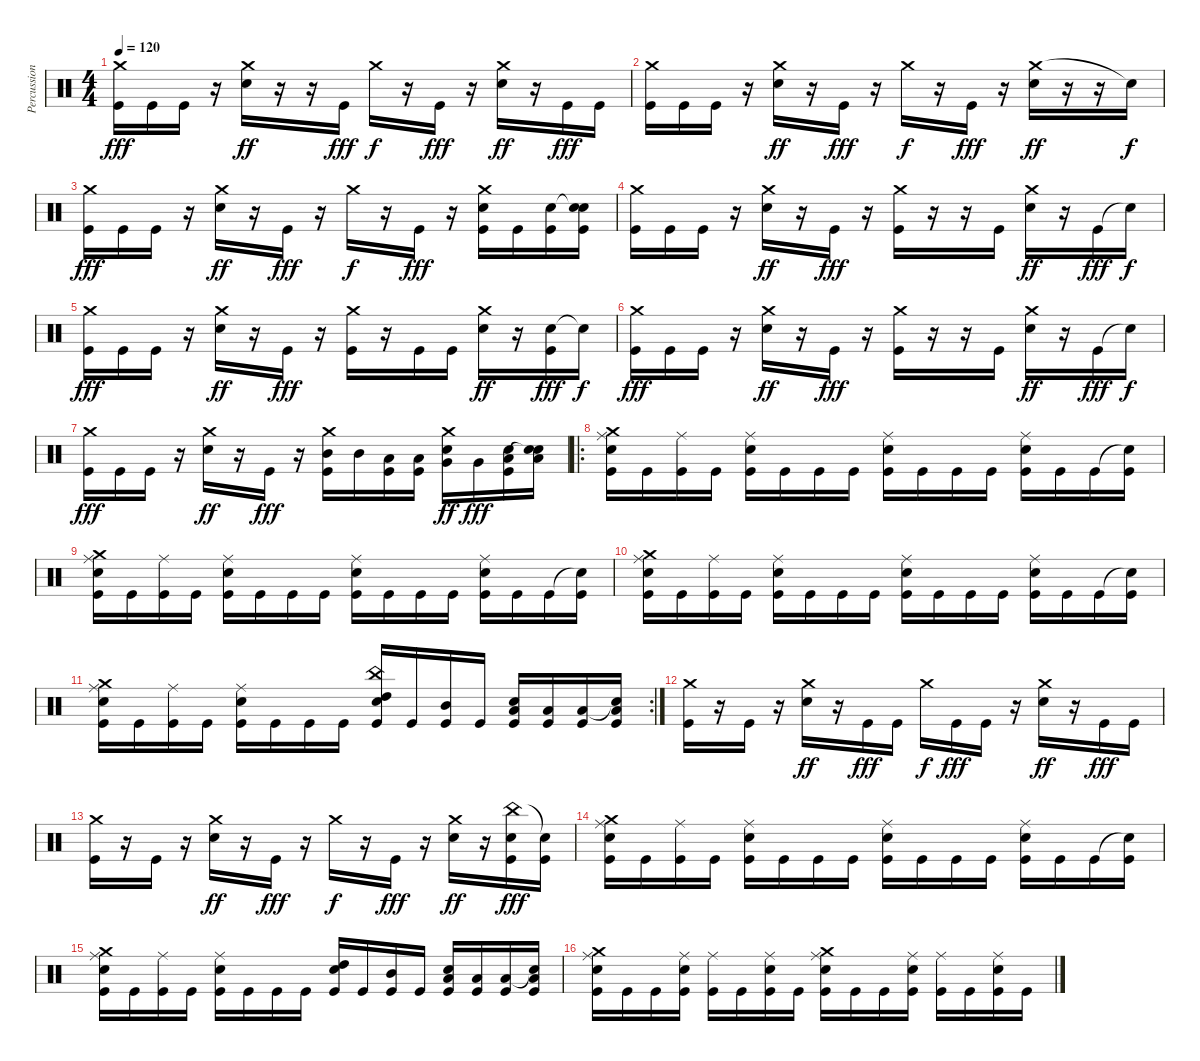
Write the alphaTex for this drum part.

\track ("Percussions" "Percussion") {instrument percussion}
\staff {score}
\articulation defaults
\ts (4 4)
\tempo 120
\clef neutral
\ks c
("Crash medium (hit)" "Kick (hit)").16{dy fff} "Kick (hit)".16 "Kick (hit)".16 r.16 ("Crash medium (hit)" "Electric Snare (hit)").16{dy ff} r.16 r.16 "Kick (hit)".16{dy fff} "Crash medium (hit)".16{dy f} r.16 "Kick (hit)".16{dy fff} r.16 ("Crash medium (hit)" "Electric Snare (hit)").16{dy ff} r.16 "Kick (hit)".16{dy fff} "Kick (hit)".16 |
("Crash medium (hit)" "Kick (hit)").16 "Kick (hit)".16 "Kick (hit)".16 r.16 ("Crash medium (hit)" "Electric Snare (hit)").16{dy ff} r.16 "Kick (hit)".16{dy fff} r.16 "Crash medium (hit)".16{dy f} r.16 "Kick (hit)".16{dy fff} r.16 ("Crash medium (hit)" "Electric Snare (hit)").16{dy ff} r.16 r.16 "Snare (hit)"{t}.16{dy f} |
("Crash medium (hit)" "Kick (hit)").16{dy fff} "Kick (hit)".16 "Kick (hit)".16 r.16 ("Crash medium (hit)" "Electric Snare (hit)").16{dy ff} r.16 "Kick (hit)".16{dy fff} r.16 "Crash medium (hit)".16{dy f} r.16 "Kick (hit)".16{dy fff} r.16 ("Crash medium (hit)" "Electric Snare (hit)" "Kick (hit)").16 "Kick (hit)".16 ("Electric Snare (hit)" "Kick (hit)").16 ("Snare (hit)"{t} "Electric Snare (hit)" "Kick (hit)").16 |
("Crash medium (hit)" "Kick (hit)").16 "Kick (hit)".16 "Kick (hit)".16 r.16 ("Crash medium (hit)" "Electric Snare (hit)").16{dy ff} r.16 "Kick (hit)".16{dy fff} r.16 ("Crash medium (hit)" "Kick (hit)").16 r.16 r.16 "Kick (hit)".16 ("Crash medium (hit)" "Electric Snare (hit)").16{dy ff} r.16 "Kick (hit)".16{dy fff} "Snare (hit)"{t}.16{dy f} |
("Crash medium (hit)" "Kick (hit)").16{dy fff} "Kick (hit)".16 "Kick (hit)".16 r.16 ("Crash medium (hit)" "Electric Snare (hit)").16{dy ff} r.16 "Kick (hit)".16{dy fff} r.16 ("Crash medium (hit)" "Kick (hit)").16 r.16 "Kick (hit)".16 "Kick (hit)".16 ("Crash medium (hit)" "Electric Snare (hit)").16{dy ff} r.16 ("Electric Snare (hit)" "Kick (hit)").16{dy fff} "Snare (hit)"{t}.16{dy f} |
("Crash medium (hit)" "Kick (hit)").16{dy fff} "Kick (hit)".16 "Kick (hit)".16 r.16 ("Crash medium (hit)" "Electric Snare (hit)").16{dy ff} r.16 "Kick (hit)".16{dy fff} r.16 ("Crash medium (hit)" "Kick (hit)").16 r.16 r.16 "Kick (hit)".16 ("Crash medium (hit)" "Electric Snare (hit)").16{dy ff} r.16 "Kick (hit)".16{dy fff} "Snare (hit)"{t}.16{dy f} |
("Crash medium (hit)" "Kick (hit)").16{dy fff} "Kick (hit)".16 "Kick (hit)".16 r.16 ("Crash medium (hit)" "Electric Snare (hit)").16{dy ff} r.16 "Kick (hit)".16{dy fff} r.16 ("Crash medium (hit)" "Mid Tom (hit)" "Kick (hit)").16 "Mid Tom (hit)".16 ("Low Tom (hit)" "Kick (hit)").16 ("Low Tom (hit)" "Kick (hit)").16 ("Crash medium (hit)" "Very Low Tom (hit)" "Electric Snare (hit)").16{dy ff} "Very Low Tom (hit)".16{dy fff} ("Low Floor Tom (hit)" "Electric Snare (hit)" "Kick (hit)").16 ("Snare (hit)"{t} "Low Floor Tom (hit)" "Electric Snare (hit)").16 |
\ro
("Ride (middle)" "Crash medium (hit)" "Snare (hit) 2" "Kick (hit)").16 "Kick (hit)".16 ("Ride (middle)" "Kick (hit)").16 "Kick (hit)".16 ("Ride (middle)" "Snare (hit) 2" "Kick (hit)").16 "Kick (hit)".16 "Kick (hit)".16 "Kick (hit)".16 ("Ride (middle)" "Snare (hit) 2" "Kick (hit)").16 "Kick (hit)".16 "Kick (hit)".16 "Kick (hit)".16 ("Ride (middle)" "Snare (hit) 2" "Kick (hit)").16 "Kick (hit)".16 "Kick (hit)".16 ("Snare (hit)"{t} "Kick (hit)").16 |
("Ride (middle)" "Crash medium (hit)" "Snare (hit) 2" "Kick (hit)").16 "Kick (hit)".16 ("Ride (middle)" "Kick (hit)").16 "Kick (hit)".16 ("Ride (middle)" "Snare (hit) 2" "Kick (hit)").16 "Kick (hit)".16 "Kick (hit)".16 "Kick (hit)".16 ("Ride (middle)" "Snare (hit) 2" "Kick (hit)").16 "Kick (hit)".16 "Kick (hit)".16 "Kick (hit)".16 ("Ride (middle)" "Snare (hit) 2" "Kick (hit)").16 "Kick (hit)".16 "Kick (hit)".16 ("Snare (hit)"{t} "Kick (hit)").16 |
("Ride (middle)" "Crash medium (hit)" "Snare (hit) 2" "Kick (hit)").16 "Kick (hit)".16 ("Ride (middle)" "Kick (hit)").16 "Kick (hit)".16 ("Ride (middle)" "Snare (hit) 2" "Kick (hit)").16 "Kick (hit)".16 "Kick (hit)".16 "Kick (hit)".16 ("Ride (middle)" "Snare (hit) 2" "Kick (hit)").16 "Kick (hit)".16 "Kick (hit)".16 "Kick (hit)".16 ("Ride (middle)" "Snare (hit) 2" "Kick (hit)").16 "Kick (hit)".16 "Kick (hit)".16 ("Snare (hit)"{t} "Kick (hit)").16 |
\rc 2
("Ride (middle)" "Crash medium (hit)" "Snare (hit) 2" "Kick (hit)").16 "Kick (hit)".16 ("Ride (middle)" "Kick (hit)").16 "Kick (hit)".16 ("Ride (middle)" "Snare (hit) 2" "Kick (hit)").16 "Kick (hit)".16 "Kick (hit)".16 "Kick (hit)".16 ("China (hit)" "High Tom (hit)" "Snare (hit) 2" "Kick (hit)").16 "Kick (hit)".16 ("Mid Tom (hit)" "Kick (hit)").16 "Kick (hit)".16 ("Low Tom (hit)" "Snare (hit) 2" "Kick (hit)").16 ("Low Tom (hit)" "Kick (hit)").16 ("Low Floor Tom (hit)" "Kick (hit)").16 ("Snare (hit)"{t} "Low Floor Tom (hit)" "Kick (hit)").16 |
("Crash medium (hit)" "Kick (hit)").16 r.16 "Kick (hit)".16 r.16 ("Crash medium (hit)" "Electric Snare (hit)").16{dy ff} r.16 "Kick (hit)".16{dy fff} "Kick (hit)".16 "Crash medium (hit)".16{dy f} "Kick (hit)".16{dy fff} "Kick (hit)".16 r.16 ("Crash medium (hit)" "Electric Snare (hit)").16{dy ff} r.16 "Kick (hit)".16{dy fff} "Kick (hit)".16 |
("Crash medium (hit)" "Kick (hit)").16 r.16 "Kick (hit)".16 r.16 ("Crash medium (hit)" "Electric Snare (hit)").16{dy ff} r.16 "Kick (hit)".16{dy fff} r.16 "Crash medium (hit)".16{dy f} r.16 "Kick (hit)".16{dy fff} r.16 ("Crash medium (hit)" "Electric Snare (hit)").16{dy ff} r.16 ("China (hit)" "Electric Snare (hit)" "Kick (hit)").16{dy fff} ("Snare (hit)"{t} "Kick (hit)").16 |
("Ride (middle)" "Crash medium (hit)" "Snare (hit) 2" "Kick (hit)").16 "Kick (hit)".16 ("Ride (middle)" "Kick (hit)").16 "Kick (hit)".16 ("Ride (middle)" "Snare (hit) 2" "Kick (hit)").16 "Kick (hit)".16 "Kick (hit)".16 "Kick (hit)".16 ("Ride (middle)" "Snare (hit) 2" "Kick (hit)").16 "Kick (hit)".16 "Kick (hit)".16 "Kick (hit)".16 ("Ride (middle)" "Snare (hit) 2" "Kick (hit)").16 "Kick (hit)".16 "Kick (hit)".16 ("Snare (hit)"{t} "Kick (hit)").16 |
("Ride (middle)" "Crash medium (hit)" "Snare (hit) 2" "Kick (hit)").16 "Kick (hit)".16 ("Ride (middle)" "Kick (hit)").16 "Kick (hit)".16 ("Ride (middle)" "Snare (hit) 2" "Kick (hit)").16 "Kick (hit)".16 "Kick (hit)".16 "Kick (hit)".16 ("High Tom (hit)" "Snare (hit) 2" "Kick (hit)").16 "Kick (hit)".16 ("Mid Tom (hit)" "Kick (hit)").16 "Kick (hit)".16 ("Low Tom (hit)" "Snare (hit) 2" "Kick (hit)").16 ("Low Tom (hit)" "Kick (hit)").16 ("Low Floor Tom (hit)" "Kick (hit)").16 ("Snare (hit)"{t} "Low Floor Tom (hit)" "Kick (hit)").16 |
("Crash medium (hit)" "Ride (middle)" "Snare (hit) 2" "Kick (hit)").16 "Kick (hit)".16 "Kick (hit)".16 ("Ride (middle)" "Snare (hit) 2" "Kick (hit)").16 ("Ride (middle)" "Kick (hit)").16 "Kick (hit)".16 ("Ride (middle)" "Snare (hit) 2" "Kick (hit)").16 "Kick (hit)".16 ("Crash medium (hit)" "Ride (middle)" "Snare (hit) 2" "Kick (hit)").16 "Kick (hit)".16 "Kick (hit)".16 ("Ride (middle)" "Snare (hit) 2" "Kick (hit)").16 ("Ride (middle)" "Kick (hit)").16 "Kick (hit)".16 ("Ride (middle)" "Snare (hit) 2" "Kick (hit)").16 "Kick (hit)".16
